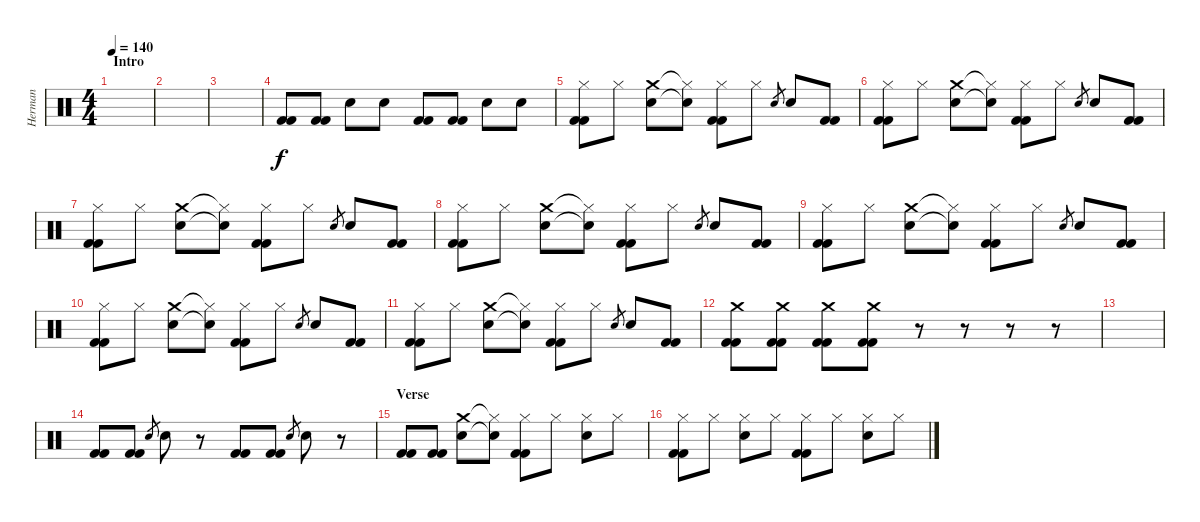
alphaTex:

\track ("Herman" "Herman") {instrument percussion}
\staff {score}
\articulation defaults
\ts (4 4)
\section ("" "Intro")
\tempo 140
\clef neutral
\ks c
|
|
|
("Kick (hit) 2" "Kick (hit) 2").8 ("Kick (hit) 2" "Kick (hit) 2").8 "Electric Snare (hit)".8 "Electric Snare (hit)".8 ("Kick (hit) 2" "Kick (hit) 2").8 ("Kick (hit) 2" "Kick (hit) 2").8 "Electric Snare (hit)".8 "Electric Snare (hit)".8 |
("Hi-Hat (closed)" "Kick (hit) 2" "Kick (hit) 2").8 "Hi-Hat (closed)".8 ("Electric Snare (hit)" "Crash medium (hit)").8 ("Snare (hit)"{t} "Hi-Hat (closed)"{t}).8 ("Hi-Hat (closed)" "Kick (hit) 2" "Kick (hit) 2").8 "Hi-Hat (closed)".8 "Electric Snare (hit)".8{gr} "Electric Snare (hit)".8 ("Kick (hit) 2" "Kick (hit) 2").8 |
("Hi-Hat (closed)" "Kick (hit) 2" "Kick (hit) 2").8 "Hi-Hat (closed)".8 ("Electric Snare (hit)" "Crash medium (hit)").8 ("Snare (hit)"{t} "Hi-Hat (closed)"{t}).8 ("Hi-Hat (closed)" "Kick (hit) 2" "Kick (hit) 2").8 "Hi-Hat (closed)".8 "Electric Snare (hit)".8{gr} "Electric Snare (hit)".8 ("Kick (hit) 2" "Kick (hit) 2").8 |
("Hi-Hat (closed)" "Kick (hit) 2" "Kick (hit) 2").8 "Hi-Hat (closed)".8 ("Electric Snare (hit)" "Crash medium (hit)").8 ("Snare (hit)"{t} "Hi-Hat (closed)"{t}).8 ("Hi-Hat (closed)" "Kick (hit) 2" "Kick (hit) 2").8 "Hi-Hat (closed)".8 "Electric Snare (hit)".8{gr} "Electric Snare (hit)".8 ("Kick (hit) 2" "Kick (hit) 2").8 |
("Hi-Hat (closed)" "Kick (hit) 2" "Kick (hit) 2").8 "Hi-Hat (closed)".8 ("Electric Snare (hit)" "Crash medium (hit)").8 ("Snare (hit)"{t} "Hi-Hat (closed)"{t}).8 ("Hi-Hat (closed)" "Kick (hit) 2" "Kick (hit) 2").8 "Hi-Hat (closed)".8 "Electric Snare (hit)".8{gr} "Electric Snare (hit)".8 ("Kick (hit) 2" "Kick (hit) 2").8 |
("Hi-Hat (closed)" "Kick (hit) 2" "Kick (hit) 2").8 "Hi-Hat (closed)".8 ("Electric Snare (hit)" "Crash medium (hit)").8 ("Snare (hit)"{t} "Hi-Hat (closed)"{t}).8 ("Hi-Hat (closed)" "Kick (hit) 2" "Kick (hit) 2").8 "Hi-Hat (closed)".8 "Electric Snare (hit)".8{gr} "Electric Snare (hit)".8 ("Kick (hit) 2" "Kick (hit) 2").8 |
("Hi-Hat (closed)" "Kick (hit) 2" "Kick (hit) 2").8 "Hi-Hat (closed)".8 ("Electric Snare (hit)" "Crash medium (hit)").8 ("Snare (hit)"{t} "Hi-Hat (closed)"{t}).8 ("Hi-Hat (closed)" "Kick (hit) 2" "Kick (hit) 2").8 "Hi-Hat (closed)".8 "Electric Snare (hit)".8{gr} "Electric Snare (hit)".8 ("Kick (hit) 2" "Kick (hit) 2").8 |
("Hi-Hat (closed)" "Kick (hit) 2" "Kick (hit) 2").8 "Hi-Hat (closed)".8 ("Electric Snare (hit)" "Crash medium (hit)").8 ("Snare (hit)"{t} "Hi-Hat (closed)"{t}).8 ("Hi-Hat (closed)" "Kick (hit) 2" "Kick (hit) 2").8 "Hi-Hat (closed)".8 "Electric Snare (hit)".8{gr} "Electric Snare (hit)".8 ("Kick (hit) 2" "Kick (hit) 2").8 |
("Crash medium (hit)" "Kick (hit) 2" "Kick (hit) 2").8 ("Kick (hit) 2" "Kick (hit) 2" "Crash medium (hit)").8 ("Crash medium (hit)" "Kick (hit) 2" "Kick (hit) 2").8 ("Kick (hit) 2" "Kick (hit) 2" "Crash medium (hit)").8 r.8 r.8 r.8 r.8 |
|
("Kick (hit) 2" "Kick (hit) 2").8 ("Kick (hit) 2" "Kick (hit) 2").8 "Electric Snare (hit)".8{gr} "Electric Snare (hit)".8 r.8 ("Kick (hit) 2" "Kick (hit) 2").8 ("Kick (hit) 2" "Kick (hit) 2").8 "Electric Snare (hit)".8{gr} "Electric Snare (hit)".8 r.8 |
\section ("" "Verse")
("Kick (hit) 2" "Kick (hit) 2").8 ("Kick (hit) 2" "Kick (hit) 2").8 ("Electric Snare (hit)" "Crash medium (hit)").8 ("Snare (hit)"{t} "Hi-Hat (closed)"{t}).8 ("Kick (hit) 2" "Kick (hit) 2" "Hi-Hat (closed)").8 "Hi-Hat (closed)".8 ("Hi-Hat (closed)" "Electric Snare (hit)").8 "Hi-Hat (closed)".8 |
("Hi-Hat (closed)" "Kick (hit) 2" "Kick (hit) 2").8 "Hi-Hat (closed)".8 ("Hi-Hat (closed)" "Electric Snare (hit)").8 "Hi-Hat (closed)".8 ("Kick (hit) 2" "Kick (hit) 2" "Hi-Hat (closed)").8 "Hi-Hat (closed)".8 ("Hi-Hat (closed)" "Electric Snare (hit)").8 "Hi-Hat (closed)".8
